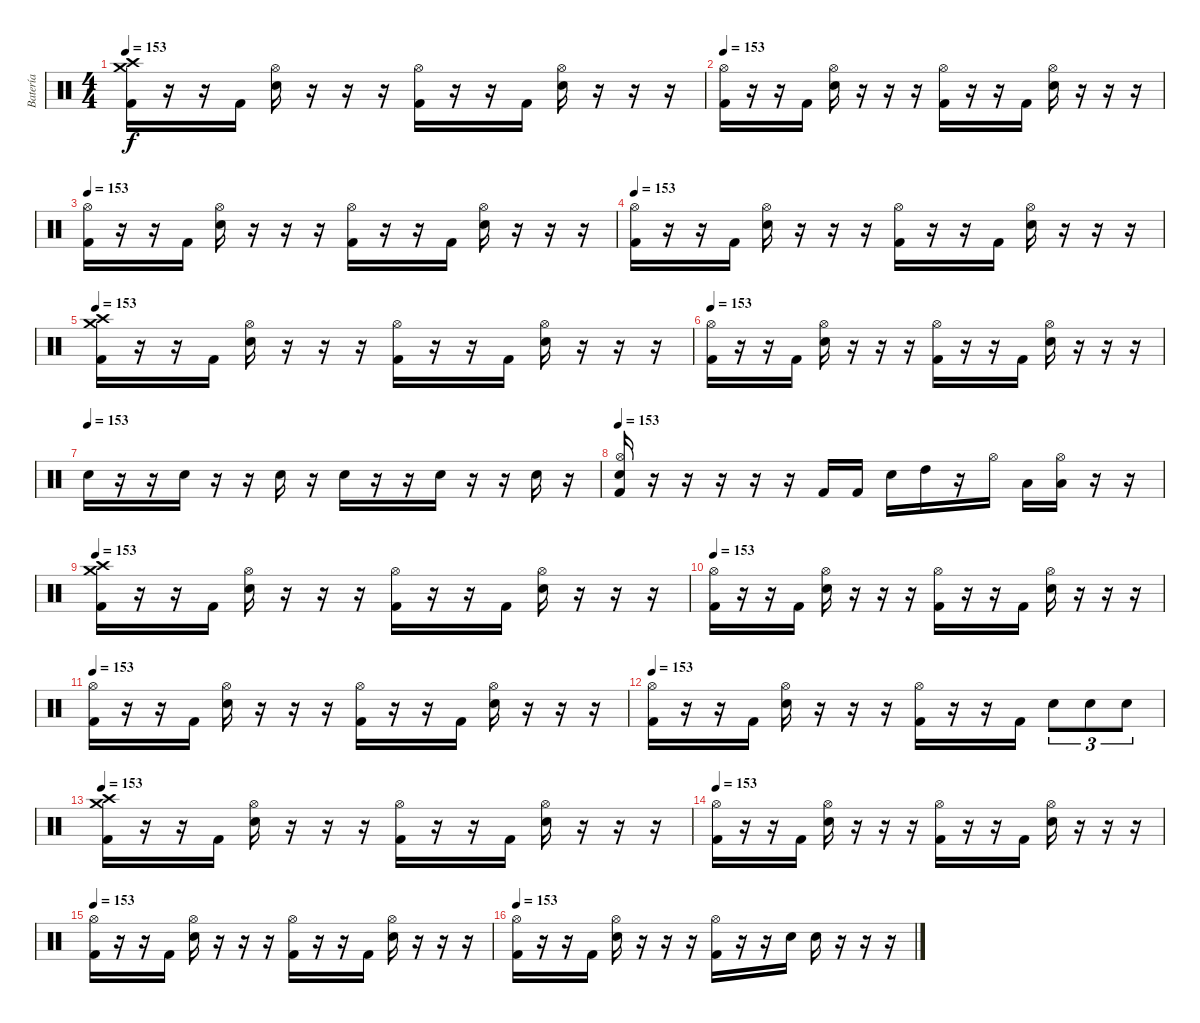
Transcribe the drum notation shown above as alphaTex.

\track ("Batería" "Batería") {instrument percussion}
\staff {score}
\articulation defaults
\ts (4 4)
\tempo 153
\clef neutral
\ks c
("Crash medium (hit)" "Crash high (hit)" "Kick (hit) 2").16{dy f} r.16 r.16 "Kick (hit) 2".16 ("Hi-Hat (open)" "Snare (hit) 2").16 r.16 r.16 r.16 ("Hi-Hat (open)" "Kick (hit) 2").16 r.16 r.16 "Kick (hit) 2".16 ("Hi-Hat (open)" "Snare (hit) 2").16 r.16 r.16 r.16 |
\tempo 153
("Hi-Hat (open)" "Kick (hit) 2").16 r.16 r.16 "Kick (hit) 2".16 ("Hi-Hat (open)" "Snare (hit) 2").16 r.16 r.16 r.16 ("Hi-Hat (open)" "Kick (hit) 2").16 r.16 r.16 "Kick (hit) 2".16 ("Hi-Hat (open)" "Snare (hit) 2").16 r.16 r.16 r.16 |
\tempo 153
("Hi-Hat (open)" "Kick (hit) 2").16 r.16 r.16 "Kick (hit) 2".16 ("Hi-Hat (open)" "Snare (hit) 2").16 r.16 r.16 r.16 ("Hi-Hat (open)" "Kick (hit) 2").16 r.16 r.16 "Kick (hit) 2".16 ("Hi-Hat (open)" "Snare (hit) 2").16 r.16 r.16 r.16 |
\tempo 153
("Hi-Hat (open)" "Kick (hit) 2").16 r.16 r.16 "Kick (hit) 2".16 ("Hi-Hat (open)" "Snare (hit) 2").16 r.16 r.16 r.16 ("Hi-Hat (open)" "Kick (hit) 2").16 r.16 r.16 "Kick (hit) 2".16 ("Hi-Hat (open)" "Snare (hit) 2").16 r.16 r.16 r.16 |
\tempo 153
("Crash medium (hit)" "Crash high (hit)" "Kick (hit) 2").16 r.16 r.16 "Kick (hit) 2".16 ("Hi-Hat (open)" "Snare (hit) 2").16 r.16 r.16 r.16 ("Hi-Hat (open)" "Kick (hit) 2").16 r.16 r.16 "Kick (hit) 2".16 ("Hi-Hat (open)" "Snare (hit) 2").16 r.16 r.16 r.16 |
\tempo 153
("Hi-Hat (open)" "Kick (hit) 2").16 r.16 r.16 "Kick (hit) 2".16 ("Hi-Hat (open)" "Snare (hit) 2").16 r.16 r.16 r.16 ("Hi-Hat (open)" "Kick (hit) 2").16 r.16 r.16 "Kick (hit) 2".16 ("Hi-Hat (open)" "Snare (hit) 2").16 r.16 r.16 r.16 |
\tempo (153)
"Snare (hit) 2".16 r.16 r.16 "Snare (hit) 2".16 r.16 r.16 "Snare (hit) 2".16 r.16 "Snare (hit) 2".16 r.16 r.16 "Snare (hit) 2".16 r.16 r.16 "Snare (hit) 2".16 r.16 |
\tempo 153
("Hi-Hat (open)" "Kick (hit) 2" "Snare (hit) 2").16 r.16 r.16 r.16 r.16 r.16 "Kick (hit) 2".16 "Kick (hit) 2".16 "Snare (hit) 2".16 "High Tom (hit)".16 r.16 "Hi-Hat (open)".16 "Low Tom (hit)".16 ("Hi-Hat (open)" "Low Tom (hit)").16 r.16 r.16 |
\tempo 153
("Crash medium (hit)" "Crash high (hit)" "Kick (hit) 2").16 r.16 r.16 "Kick (hit) 2".16 ("Hi-Hat (open)" "Snare (hit) 2").16 r.16 r.16 r.16 ("Hi-Hat (open)" "Kick (hit) 2").16 r.16 r.16 "Kick (hit) 2".16 ("Hi-Hat (open)" "Snare (hit) 2").16 r.16 r.16 r.16 |
\tempo 153
("Hi-Hat (open)" "Kick (hit) 2").16 r.16 r.16 "Kick (hit) 2".16 ("Hi-Hat (open)" "Snare (hit) 2").16 r.16 r.16 r.16 ("Hi-Hat (open)" "Kick (hit) 2").16 r.16 r.16 "Kick (hit) 2".16 ("Hi-Hat (open)" "Snare (hit) 2").16 r.16 r.16 r.16 |
\tempo 153
("Hi-Hat (open)" "Kick (hit) 2").16 r.16 r.16 "Kick (hit) 2".16 ("Hi-Hat (open)" "Snare (hit) 2").16 r.16 r.16 r.16 ("Hi-Hat (open)" "Kick (hit) 2").16 r.16 r.16 "Kick (hit) 2".16 ("Hi-Hat (open)" "Snare (hit) 2").16 r.16 r.16 r.16 |
\tempo 153
("Hi-Hat (open)" "Kick (hit) 2").16 r.16 r.16 "Kick (hit) 2".16 ("Hi-Hat (open)" "Snare (hit) 2").16 r.16 r.16 r.16 ("Hi-Hat (open)" "Kick (hit) 2").16 r.16 r.16 "Kick (hit) 2".16 "Snare (hit) 2".8{tu (3 2)} "Snare (hit) 2".8{tu (3 2)} "Snare (hit) 2".8{tu (3 2)} |
\tempo 153
("Crash medium (hit)" "Crash high (hit)" "Kick (hit) 2").16 r.16 r.16 "Kick (hit) 2".16 ("Hi-Hat (open)" "Snare (hit) 2").16 r.16 r.16 r.16 ("Hi-Hat (open)" "Kick (hit) 2").16 r.16 r.16 "Kick (hit) 2".16 ("Hi-Hat (open)" "Snare (hit) 2").16 r.16 r.16 r.16 |
\tempo 153
("Hi-Hat (open)" "Kick (hit) 2").16 r.16 r.16 "Kick (hit) 2".16 ("Hi-Hat (open)" "Snare (hit) 2").16 r.16 r.16 r.16 ("Hi-Hat (open)" "Kick (hit) 2").16 r.16 r.16 "Kick (hit) 2".16 ("Hi-Hat (open)" "Snare (hit) 2").16 r.16 r.16 r.16 |
\tempo 153
("Hi-Hat (open)" "Kick (hit) 2").16 r.16 r.16 "Kick (hit) 2".16 ("Hi-Hat (open)" "Snare (hit) 2").16 r.16 r.16 r.16 ("Hi-Hat (open)" "Kick (hit) 2").16 r.16 r.16 "Kick (hit) 2".16 ("Hi-Hat (open)" "Snare (hit) 2").16 r.16 r.16 r.16 |
\tempo 153
("Hi-Hat (open)" "Kick (hit) 2").16 r.16 r.16 "Kick (hit) 2".16 ("Hi-Hat (open)" "Snare (hit) 2").16 r.16 r.16 r.16 ("Hi-Hat (open)" "Kick (hit) 2").16 r.16 r.16 "Snare (hit) 2".16 "Snare (hit) 2".16 r.16 r.16 r.16
